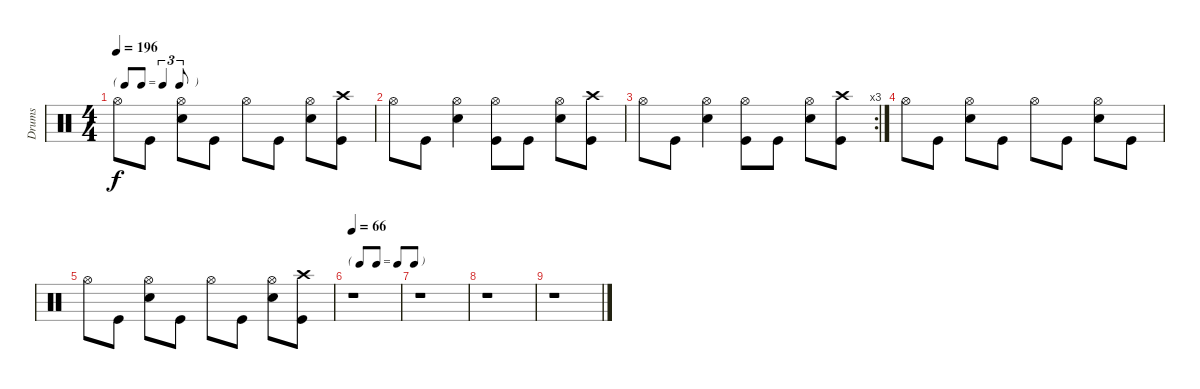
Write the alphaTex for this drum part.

\track ("Drums" "Drums") {instrument percussion}
\staff {score}
\articulation defaults
\ts (4 4)
\tf triplet8th
\tempo 196
\clef neutral
\ks c "Hi-Hat (open)".8{dy f} "Kick (hit)".8
("Hi-Hat (open)" "Snare (hit) 2").8 "Kick (hit)".8 "Hi-Hat (open)".8 "Kick (hit)".8 ("Hi-Hat (open)" "Snare (hit) 2").8 ("Crash high (hit)" "Kick (hit)").8 |
"Hi-Hat (open)".8 "Kick (hit)".8 ("Hi-Hat (open)" "Snare (hit) 2").4 ("Hi-Hat (open)" "Kick (hit)").8 "Kick (hit)".8 ("Hi-Hat (open)" "Snare (hit) 2").8 ("Crash high (hit)" "Kick (hit)").8 |
\rc 3 "Hi-Hat (open)".8 "Kick (hit)".8
("Hi-Hat (open)" "Snare (hit) 2").4 ("Hi-Hat (open)" "Kick (hit)").8 "Kick (hit)".8 ("Hi-Hat (open)" "Snare (hit) 2").8 ("Crash high (hit)" "Kick (hit)").8 |
"Hi-Hat (open)".8 "Kick (hit)".8 ("Hi-Hat (open)" "Snare (hit) 2").8 "Kick (hit)".8 "Hi-Hat (open)".8 "Kick (hit)".8 ("Hi-Hat (open)" "Snare (hit) 2").8 "Kick (hit)".8 |
"Hi-Hat (open)".8 "Kick (hit)".8 ("Hi-Hat (open)" "Snare (hit) 2").8 "Kick (hit)".8 "Hi-Hat (open)".8 "Kick (hit)".8 ("Hi-Hat (open)" "Snare (hit) 2").8 ("Crash high (hit)" "Kick (hit)").8 |
\tf none
\tempo 66
r.1 |
r.1 |
r.1 |
r.1
